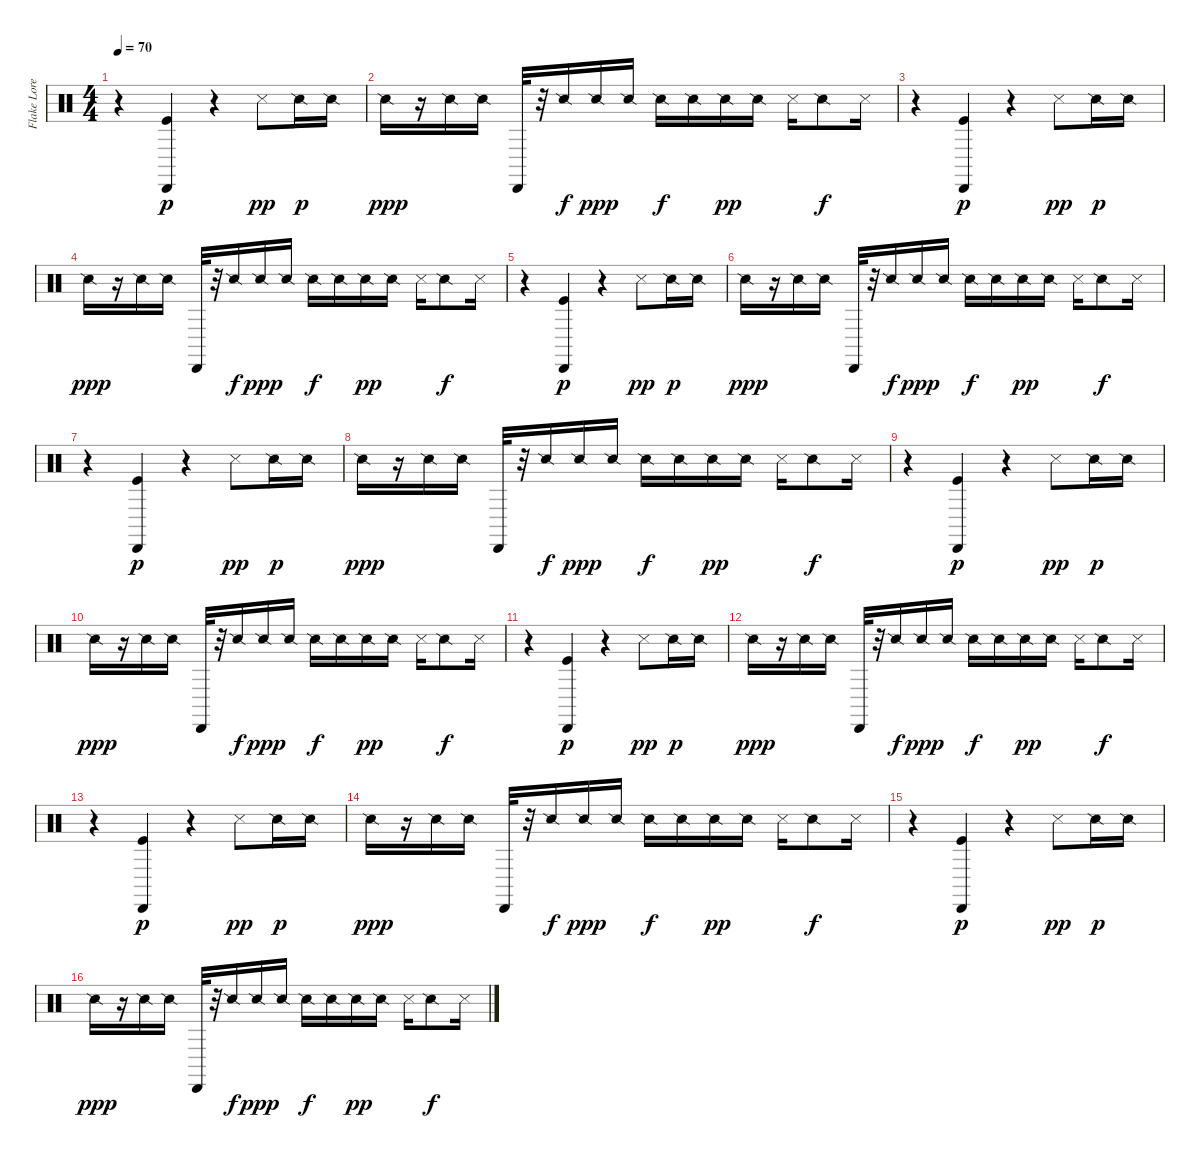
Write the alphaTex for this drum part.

\track ("Flake Lorenz" "Flake Lore") {instrument percussion}
\staff {score}
\articulation defaults
\ts (4 4)
\tempo 70
\clef neutral
\ks c
r.4{dy p} ("Kick (hit)" "Cabasa (hit)").4 r.4 "Metronome (hit)".8{dy pp} "Snare (side stick) 2".16{dy p} "Snare (side stick) 2".16 |
"Snare (side stick) 2".16{dy ppp} r.16 "Snare (side stick) 2".16 "Snare (side stick) 2".16 "Cabasa (hit)".32 r.32 "Snare (side stick) 2".16{dy f} "Snare (side stick) 2".16{dy ppp} "Snare (side stick) 2".16 "Snare (side stick) 2".16{dy f} "Snare (side stick) 2".16 "Snare (side stick) 2".16{dy pp} "Snare (side stick) 2".16 "Metronome (hit)".16 "Snare (side stick) 2".8{dy f} "Metronome (hit)".16 |
r.4 ("Kick (hit)" "Cabasa (hit)").4{dy p} r.4 "Metronome (hit)".8{dy pp} "Snare (side stick) 2".16{dy p} "Snare (side stick) 2".16 |
"Snare (side stick) 2".16{dy ppp} r.16 "Snare (side stick) 2".16 "Snare (side stick) 2".16 "Cabasa (hit)".32 r.32 "Snare (side stick) 2".16{dy f} "Snare (side stick) 2".16{dy ppp} "Snare (side stick) 2".16 "Snare (side stick) 2".16{dy f} "Snare (side stick) 2".16 "Snare (side stick) 2".16{dy pp} "Snare (side stick) 2".16 "Metronome (hit)".16 "Snare (side stick) 2".8{dy f} "Metronome (hit)".16 |
r.4 ("Kick (hit)" "Cabasa (hit)").4{dy p} r.4 "Metronome (hit)".8{dy pp} "Snare (side stick) 2".16{dy p} "Snare (side stick) 2".16 |
"Snare (side stick) 2".16{dy ppp} r.16 "Snare (side stick) 2".16 "Snare (side stick) 2".16 "Cabasa (hit)".32 r.32 "Snare (side stick) 2".16{dy f} "Snare (side stick) 2".16{dy ppp} "Snare (side stick) 2".16 "Snare (side stick) 2".16{dy f} "Snare (side stick) 2".16 "Snare (side stick) 2".16{dy pp} "Snare (side stick) 2".16 "Metronome (hit)".16 "Snare (side stick) 2".8{dy f} "Metronome (hit)".16 |
r.4 ("Cabasa (hit)" "Kick (hit)").4{dy p} r.4 "Metronome (hit)".8{dy pp} "Snare (side stick) 2".16{dy p} "Snare (side stick) 2".16 |
"Snare (side stick) 2".16{dy ppp} r.16 "Snare (side stick) 2".16 "Snare (side stick) 2".16 "Cabasa (hit)".32 r.32 "Snare (side stick) 2".16{dy f} "Snare (side stick) 2".16{dy ppp} "Snare (side stick) 2".16 "Snare (side stick) 2".16{dy f} "Snare (side stick) 2".16 "Snare (side stick) 2".16{dy pp} "Snare (side stick) 2".16 "Metronome (hit)".16 "Snare (side stick) 2".8{dy f} "Metronome (hit)".16 |
r.4 ("Cabasa (hit)" "Kick (hit)").4{dy p} r.4 "Metronome (hit)".8{dy pp} "Snare (side stick) 2".16{dy p} "Snare (side stick) 2".16 |
"Snare (side stick) 2".16{dy ppp} r.16 "Snare (side stick) 2".16 "Snare (side stick) 2".16 "Cabasa (hit)".32 r.32 "Snare (side stick) 2".16{dy f} "Snare (side stick) 2".16{dy ppp} "Snare (side stick) 2".16 "Snare (side stick) 2".16{dy f} "Snare (side stick) 2".16 "Snare (side stick) 2".16{dy pp} "Snare (side stick) 2".16 "Metronome (hit)".16 "Snare (side stick) 2".8{dy f} "Metronome (hit)".16 |
r.4 ("Cabasa (hit)" "Kick (hit)").4{dy p} r.4 "Metronome (hit)".8{dy pp} "Snare (side stick) 2".16{dy p} "Snare (side stick) 2".16 |
"Snare (side stick) 2".16{dy ppp} r.16 "Snare (side stick) 2".16 "Snare (side stick) 2".16 "Cabasa (hit)".32 r.32 "Snare (side stick) 2".16{dy f} "Snare (side stick) 2".16{dy ppp} "Snare (side stick) 2".16 "Snare (side stick) 2".16{dy f} "Snare (side stick) 2".16 "Snare (side stick) 2".16{dy pp} "Snare (side stick) 2".16 "Metronome (hit)".16 "Snare (side stick) 2".8{dy f} "Metronome (hit)".16 |
r.4 ("Kick (hit)" "Cabasa (hit)").4{dy p} r.4 "Metronome (hit)".8{dy pp} "Snare (side stick) 2".16{dy p} "Snare (side stick) 2".16 |
"Snare (side stick) 2".16{dy ppp} r.16 "Snare (side stick) 2".16 "Snare (side stick) 2".16 "Cabasa (hit)".32 r.32 "Snare (side stick) 2".16{dy f} "Snare (side stick) 2".16{dy ppp} "Snare (side stick) 2".16 "Snare (side stick) 2".16{dy f} "Snare (side stick) 2".16 "Snare (side stick) 2".16{dy pp} "Snare (side stick) 2".16 "Metronome (hit)".16 "Snare (side stick) 2".8{dy f} "Metronome (hit)".16 |
r.4 ("Kick (hit)" "Cabasa (hit)").4{dy p} r.4 "Metronome (hit)".8{dy pp} "Snare (side stick) 2".16{dy p} "Snare (side stick) 2".16 |
"Snare (side stick) 2".16{dy ppp} r.16 "Snare (side stick) 2".16 "Snare (side stick) 2".16 "Cabasa (hit)".32 r.32 "Snare (side stick) 2".16{dy f} "Snare (side stick) 2".16{dy ppp} "Snare (side stick) 2".16 "Snare (side stick) 2".16{dy f} "Snare (side stick) 2".16 "Snare (side stick) 2".16{dy pp} "Snare (side stick) 2".16 "Metronome (hit)".16 "Snare (side stick) 2".8{dy f} "Metronome (hit)".16
